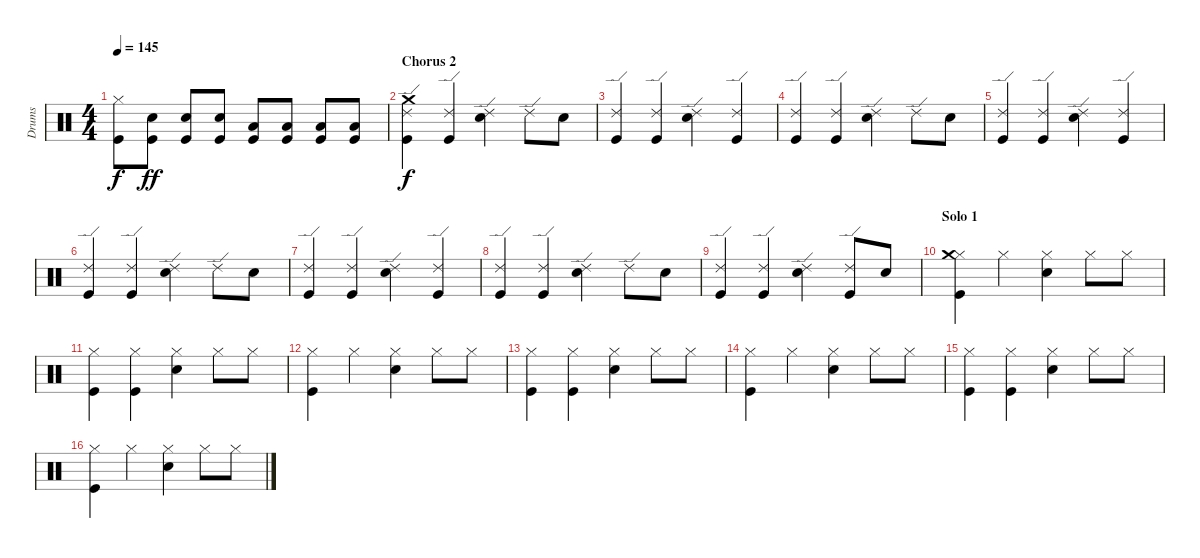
\track ("Drums" "Drums") {instrument percussion}
\staff {score}
\articulation defaults
\ts (4 4)
\tempo 145
\clef neutral
\ks c
("Hi-Hat (closed)" "Kick (hit)").8{dy f} ("Electric Snare (hit)" "Kick (hit)").8{dy ff} ("Electric Snare (hit)" "Kick (hit)").8 ("Electric Snare (hit)" "Kick (hit)").8 ("Low Tom (hit)" "Kick (hit)").8 ("Low Tom (hit)" "Kick (hit)").8 ("Low Tom (hit)" "Kick (hit)").8 ("Low Tom (hit)" "Kick (hit)").8 |
\section ("" "Chorus 2")
("Ride (edge) 2" "Crash medium (hit)" "Kick (hit)").4{dy f} ("Ride (edge) 2" "Kick (hit)").4 ("Ride (edge) 2" "Electric Snare (hit)").4 "Ride (edge) 2".8 "Electric Snare (hit)".8 |
("Ride (edge) 2" "Kick (hit)").4 ("Ride (edge) 2" "Kick (hit)").4 ("Ride (edge) 2" "Electric Snare (hit)").4 ("Ride (edge) 2" "Kick (hit)").4 |
("Ride (edge) 2" "Kick (hit)").4 ("Ride (edge) 2" "Kick (hit)").4 ("Ride (edge) 2" "Electric Snare (hit)").4 "Ride (edge) 2".8 "Electric Snare (hit)".8 |
("Ride (edge) 2" "Kick (hit)").4 ("Ride (edge) 2" "Kick (hit)").4 ("Ride (edge) 2" "Electric Snare (hit)").4 ("Ride (edge) 2" "Kick (hit)").4 |
("Ride (edge) 2" "Kick (hit)").4 ("Ride (edge) 2" "Kick (hit)").4 ("Ride (edge) 2" "Electric Snare (hit)").4 "Ride (edge) 2".8 "Electric Snare (hit)".8 |
("Ride (edge) 2" "Kick (hit)").4 ("Ride (edge) 2" "Kick (hit)").4 ("Ride (edge) 2" "Electric Snare (hit)").4 ("Ride (edge) 2" "Kick (hit)").4 |
("Ride (edge) 2" "Kick (hit)").4 ("Ride (edge) 2" "Kick (hit)").4 ("Ride (edge) 2" "Electric Snare (hit)").4 "Ride (edge) 2".8 "Electric Snare (hit)".8 |
("Ride (edge) 2" "Kick (hit)").4 ("Ride (edge) 2" "Kick (hit)").4 ("Ride (edge) 2" "Electric Snare (hit)").4 ("Ride (edge) 2" "Kick (hit)").8 "Electric Snare (hit)".8 |
\section ("" "Solo 1")
("Hi-Hat (closed)" "Crash medium (hit)" "Kick (hit)").4 "Hi-Hat (closed)".4 ("Hi-Hat (closed)" "Electric Snare (hit)").4 "Hi-Hat (closed)".8 "Hi-Hat (closed)".8 |
("Hi-Hat (closed)" "Kick (hit)").4 ("Hi-Hat (closed)" "Kick (hit)").4 ("Hi-Hat (closed)" "Electric Snare (hit)").4 "Hi-Hat (closed)".8 "Hi-Hat (closed)".8 |
("Hi-Hat (closed)" "Kick (hit)").4 "Hi-Hat (closed)".4 ("Hi-Hat (closed)" "Electric Snare (hit)").4 "Hi-Hat (closed)".8 "Hi-Hat (closed)".8 |
("Hi-Hat (closed)" "Kick (hit)").4 ("Hi-Hat (closed)" "Kick (hit)").4 ("Hi-Hat (closed)" "Electric Snare (hit)").4 "Hi-Hat (closed)".8 "Hi-Hat (closed)".8 |
("Hi-Hat (closed)" "Kick (hit)").4 "Hi-Hat (closed)".4 ("Hi-Hat (closed)" "Electric Snare (hit)").4 "Hi-Hat (closed)".8 "Hi-Hat (closed)".8 |
("Hi-Hat (closed)" "Kick (hit)").4 ("Hi-Hat (closed)" "Kick (hit)").4 ("Hi-Hat (closed)" "Electric Snare (hit)").4 "Hi-Hat (closed)".8 "Hi-Hat (closed)".8 |
("Hi-Hat (closed)" "Kick (hit)").4 "Hi-Hat (closed)".4 ("Hi-Hat (closed)" "Electric Snare (hit)").4 "Hi-Hat (closed)".8 "Hi-Hat (closed)".8
